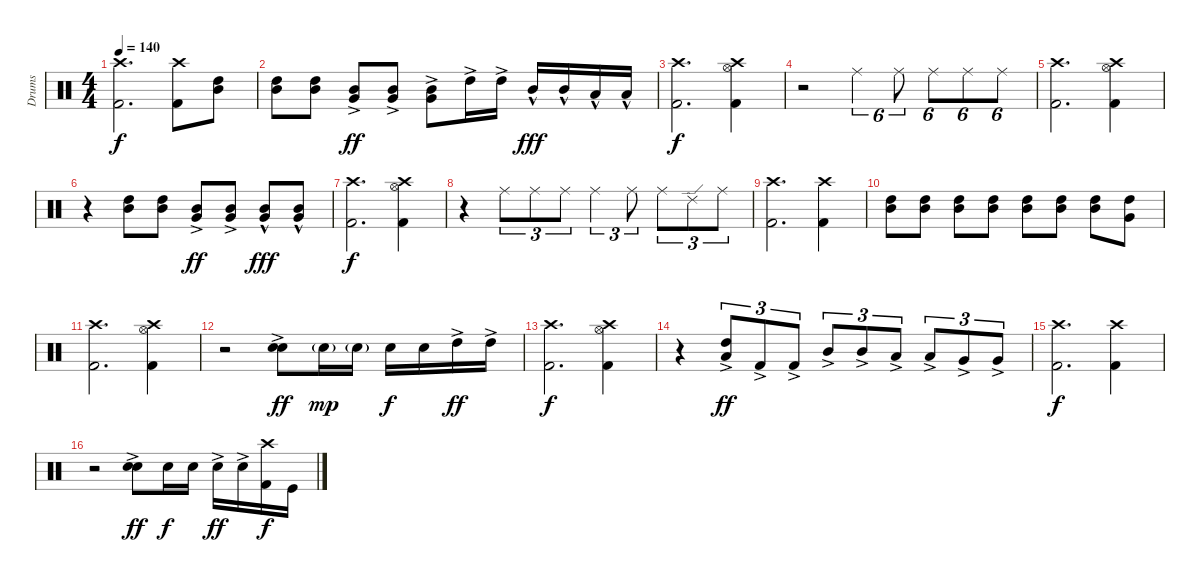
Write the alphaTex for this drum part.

\track ("Drums" "Drums") {instrument percussion}
\staff {score}
\articulation defaults
\ts (4 4)
\tempo 140
\clef neutral
\ks c
("Crash high (hit)" "Kick (hit) 2").2{d dy f} ("Crash high (hit)" "Kick (hit) 2").8 ("High Tom (hit)" "Mid Tom (hit)").8 |
("High Tom (hit)" "Mid Tom (hit)").8 ("High Tom (hit)" "Mid Tom (hit)").8 ("Mid Tom (hit)"{ac} "Very Low Tom (hit)"{ac}).8{dy ff} ("Mid Tom (hit)"{ac} "Very Low Tom (hit)"{ac}).8 ("Mid Tom (hit)"{ac} "Very Low Tom (hit)"{ac}).8 "High Tom (hit)"{ac}.16 "High Tom (hit)"{ac}.16 "Mid Tom (hit)"{hac}.16{dy fff} "Mid Tom (hit)"{hac}.16 "Low Tom (hit)"{hac}.16 "Low Tom (hit)"{hac}.16 |
("Crash high (hit)" "Kick (hit) 2").2{d dy f} ("Crash high (hit)" "Hi-Hat (open)" "Kick (hit) 2").4 |
r.2 "Ride (middle)".4{tu (6 4)} "Ride (middle)".8{tu (6 4)} "Ride (middle)".8{tu (6 4)} "Ride (middle)".8{tu (6 4)} "Ride (middle)".8{tu (6 4)} |
("Crash high (hit)" "Kick (hit) 2").2{d} ("Crash high (hit)" "Hi-Hat (open)" "Kick (hit) 2").4 |
r.4 ("High Tom (hit)" "Mid Tom (hit)").8 ("High Tom (hit)" "Mid Tom (hit)").8 ("Mid Tom (hit)"{ac} "Very Low Tom (hit)"{ac}).8{dy ff} ("Mid Tom (hit)"{ac} "Very Low Tom (hit)"{ac}).8 ("Mid Tom (hit)"{hac} "Very Low Tom (hit)"{hac}).8{dy fff} ("Mid Tom (hit)"{hac} "Very Low Tom (hit)"{hac}).8 |
("Crash high (hit)" "Kick (hit) 2").2{d dy f} ("Crash high (hit)" "Hi-Hat (open)" "Kick (hit) 2").4 |
r.4 "Ride (middle)".8{tu (3 2)} "Ride (middle)".8{tu (3 2)} "Ride (middle)".8{tu (3 2)} "Ride (middle)".4{tu (3 2)} "Ride (middle)".8{tu (3 2)} "Ride (middle)".8{tu (3 2)} "Ride (edge) 2".8{tu (3 2)} "Ride (middle)".8{tu (3 2)} |
("Crash high (hit)" "Kick (hit) 2").2{d} ("Crash high (hit)" "Kick (hit) 2").4 |
("High Tom (hit)" "Mid Tom (hit)").8 ("High Tom (hit)" "Mid Tom (hit)").8 ("High Tom (hit)" "Mid Tom (hit)").8 ("High Tom (hit)" "Mid Tom (hit)").8 ("High Tom (hit)" "Mid Tom (hit)").8 ("High Tom (hit)" "Mid Tom (hit)").8 ("High Tom (hit)" "Mid Tom (hit)").8 ("High Tom (hit)" "Very Low Tom (hit)").8 |
("Crash high (hit)" "Kick (hit) 2").2{d} ("Crash high (hit)" "Hi-Hat (open)" "Kick (hit) 2").4 |
r.2 ("Snare (hit) 2"{ac} "Snare (hit) 2"{ac}).8{dy ff} "Snare (hit) 2"{g}.16{dy mp} "Snare (hit) 2"{g}.16 "Snare (hit) 2".16{dy f} "Snare (hit) 2".16 "High Tom (hit)"{ac}.16{dy ff} "High Tom (hit)"{ac}.16 |
("Crash high (hit)" "Kick (hit) 2").2{d dy f} ("Crash high (hit)" "Hi-Hat (open)" "Kick (hit) 2").4 |
r.4 ("High Tom (hit)"{ac} "Low Tom (hit)"{ac}).8{tu (3 2) dy ff} "Kick (hit) 2"{ac}.8{tu (3 2)} "Kick (hit) 2"{ac}.8{tu (3 2)} "Mid Tom (hit)"{ac}.8{tu (3 2)} "Mid Tom (hit)"{ac}.8{tu (3 2)} "Low Tom (hit)"{ac}.8{tu (3 2)} "Low Tom (hit)"{ac}.8{tu (3 2)} "Very Low Tom (hit)"{ac}.8{tu (3 2)} "Very Low Tom (hit)"{ac}.8{tu (3 2)} |
("Crash high (hit)" "Kick (hit) 2").2{d dy f} ("Crash high (hit)" "Kick (hit) 2").4 |
r.2 ("Snare (hit) 2"{ac} "Snare (hit) 2"{ac}).8{dy ff} "Snare (hit) 2".16{dy f} "Snare (hit) 2".16 "Snare (hit) 2"{ac}.16{dy ff} "Snare (hit) 2"{ac}.16 ("Crash high (hit)" "Kick (hit) 2").16{dy f} "Kick (hit)".16
